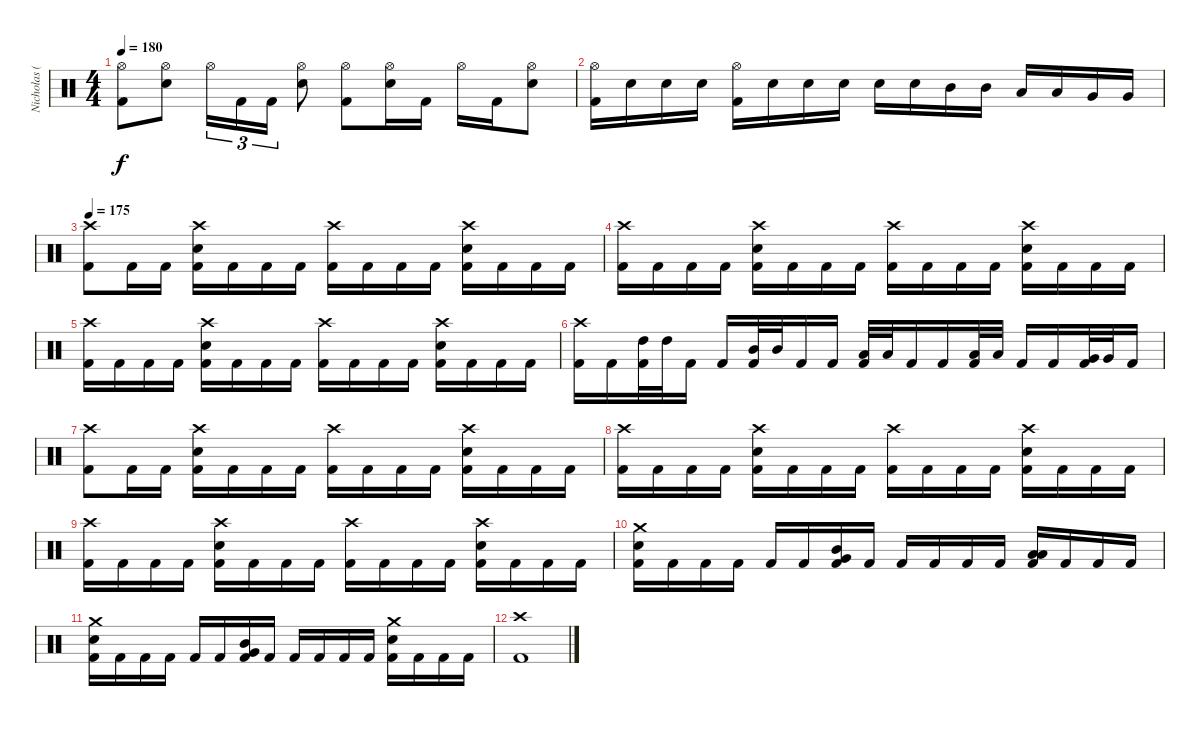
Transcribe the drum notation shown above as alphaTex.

\track ("Nicholas (Drums)" "Nicholas (") {instrument percussion}
\staff {score}
\articulation defaults
\ts (4 4)
\tempo 180
\clef neutral
\ks c
("Hi-Hat (open)" "Kick (hit) 2").8{dy f} ("Hi-Hat (open)" "Electric Snare (hit)").8 "Hi-Hat (open)".16{tu (3 2)} "Kick (hit) 2".16{tu (3 2)} "Kick (hit) 2".16{tu (3 2)} ("Hi-Hat (open)" "Electric Snare (hit)").8 ("Hi-Hat (open)" "Kick (hit) 2").8 ("Hi-Hat (open)" "Electric Snare (hit)").16 "Kick (hit) 2".16 "Hi-Hat (open)".16 "Kick (hit) 2".16 ("Hi-Hat (open)" "Electric Snare (hit)").8 |
("Hi-Hat (open)" "Kick (hit) 2").16 "Electric Snare (hit)".16 "Electric Snare (hit)".16 "Electric Snare (hit)".16 ("Hi-Hat (open)" "Kick (hit) 2").16 "Electric Snare (hit)".16 "Electric Snare (hit)".16 "Electric Snare (hit)".16 "Electric Snare (hit)".16 "Electric Snare (hit)".16 "Mid Tom (hit)".16 "Mid Tom (hit)".16 "Low Tom (hit)".16 "Low Tom (hit)".16 "Very Low Tom (hit)".16 "Very Low Tom (hit)".16 |
\tempo 175
("Crash high (hit)" "Kick (hit) 2").8 "Kick (hit) 2".16 "Kick (hit) 2".16 ("Crash high (hit)" "Electric Snare (hit)" "Kick (hit) 2").16 "Kick (hit) 2".16 "Kick (hit) 2".16 "Kick (hit) 2".16 ("Crash high (hit)" "Kick (hit) 2").16 "Kick (hit) 2".16 "Kick (hit) 2".16 "Kick (hit) 2".16 ("Crash high (hit)" "Electric Snare (hit)" "Kick (hit) 2").16 "Kick (hit) 2".16 "Kick (hit) 2".16 "Kick (hit) 2".16 |
("Crash high (hit)" "Kick (hit) 2").16 "Kick (hit) 2".16 "Kick (hit) 2".16 "Kick (hit) 2".16 ("Crash high (hit)" "Electric Snare (hit)" "Kick (hit) 2").16 "Kick (hit) 2".16 "Kick (hit) 2".16 "Kick (hit) 2".16 ("Crash high (hit)" "Kick (hit) 2").16 "Kick (hit) 2".16 "Kick (hit) 2".16 "Kick (hit) 2".16 ("Crash high (hit)" "Electric Snare (hit)" "Kick (hit) 2").16 "Kick (hit) 2".16 "Kick (hit) 2".16 "Kick (hit) 2".16 |
("Crash high (hit)" "Kick (hit) 2").16 "Kick (hit) 2".16 "Kick (hit) 2".16 "Kick (hit) 2".16 ("Crash high (hit)" "Electric Snare (hit)" "Kick (hit) 2").16 "Kick (hit) 2".16 "Kick (hit) 2".16 "Kick (hit) 2".16 ("Crash high (hit)" "Kick (hit) 2").16 "Kick (hit) 2".16 "Kick (hit) 2".16 "Kick (hit) 2".16 ("Crash high (hit)" "Electric Snare (hit)" "Kick (hit) 2").16 "Kick (hit) 2".16 "Kick (hit) 2".16 "Kick (hit) 2".16 |
("Crash high (hit)" "Kick (hit) 2").16 "Kick (hit) 2".16 ("High Tom (hit)" "Kick (hit) 2").32 "High Tom (hit)".32 "Kick (hit) 2".16 "Kick (hit) 2".16 ("Mid Tom (hit)" "Kick (hit) 2").32 "Mid Tom (hit)".32 "Kick (hit) 2".16 "Kick (hit) 2".16 ("Low Tom (hit)" "Kick (hit) 2").32 "Low Tom (hit)".32 "Kick (hit) 2".16 "Kick (hit) 2".16 ("Low Tom (hit)" "Kick (hit) 2").32 "Low Tom (hit)".32 "Kick (hit) 2".16 "Kick (hit) 2".16 ("Very Low Tom (hit)" "Kick (hit) 2").32 "Very Low Tom (hit)".32 "Kick (hit) 2".16 |
("Crash high (hit)" "Kick (hit) 2").8 "Kick (hit) 2".16 "Kick (hit) 2".16 ("Crash high (hit)" "Electric Snare (hit)" "Kick (hit) 2").16 "Kick (hit) 2".16 "Kick (hit) 2".16 "Kick (hit) 2".16 ("Crash high (hit)" "Kick (hit) 2").16 "Kick (hit) 2".16 "Kick (hit) 2".16 "Kick (hit) 2".16 ("Crash high (hit)" "Electric Snare (hit)" "Kick (hit) 2").16 "Kick (hit) 2".16 "Kick (hit) 2".16 "Kick (hit) 2".16 |
("Crash high (hit)" "Kick (hit) 2").16 "Kick (hit) 2".16 "Kick (hit) 2".16 "Kick (hit) 2".16 ("Crash high (hit)" "Electric Snare (hit)" "Kick (hit) 2").16 "Kick (hit) 2".16 "Kick (hit) 2".16 "Kick (hit) 2".16 ("Crash high (hit)" "Kick (hit) 2").16 "Kick (hit) 2".16 "Kick (hit) 2".16 "Kick (hit) 2".16 ("Crash high (hit)" "Electric Snare (hit)" "Kick (hit) 2").16 "Kick (hit) 2".16 "Kick (hit) 2".16 "Kick (hit) 2".16 |
("Crash high (hit)" "Kick (hit) 2").16 "Kick (hit) 2".16 "Kick (hit) 2".16 "Kick (hit) 2".16 ("Crash high (hit)" "Electric Snare (hit)" "Kick (hit) 2").16 "Kick (hit) 2".16 "Kick (hit) 2".16 "Kick (hit) 2".16 ("Crash high (hit)" "Kick (hit) 2").16 "Kick (hit) 2".16 "Kick (hit) 2".16 "Kick (hit) 2".16 ("Crash high (hit)" "Electric Snare (hit)" "Kick (hit) 2").16 "Kick (hit) 2".16 "Kick (hit) 2".16 "Kick (hit) 2".16 |
("Crash medium (hit)" "Electric Snare (hit)" "Kick (hit) 2").16 "Kick (hit) 2".16 "Kick (hit) 2".16 "Kick (hit) 2".16 "Kick (hit) 2".16 "Kick (hit) 2".16 ("Mid Tom (hit)" "Very Low Tom (hit)" "Kick (hit) 2").16 "Kick (hit) 2".16 "Kick (hit) 2".16 "Kick (hit) 2".16 "Kick (hit) 2".16 "Kick (hit) 2".16 ("Low Tom (hit)" "Low Floor Tom (hit)" "Kick (hit) 2").16 "Kick (hit) 2".16 "Kick (hit) 2".16 "Kick (hit) 2".16 |
("Crash medium (hit)" "Electric Snare (hit)" "Kick (hit) 2").16 "Kick (hit) 2".16 "Kick (hit) 2".16 "Kick (hit) 2".16 "Kick (hit) 2".16 "Kick (hit) 2".16 ("Mid Tom (hit)" "Very Low Tom (hit)" "Kick (hit) 2").16 "Kick (hit) 2".16 "Kick (hit) 2".16 "Kick (hit) 2".16 "Kick (hit) 2".16 "Kick (hit) 2".16 ("Crash medium (hit)" "Electric Snare (hit)" "Kick (hit) 2").16 "Kick (hit) 2".16 "Kick (hit) 2".16 "Kick (hit) 2".16 |
("Crash high (hit)" "Kick (hit) 2").1
